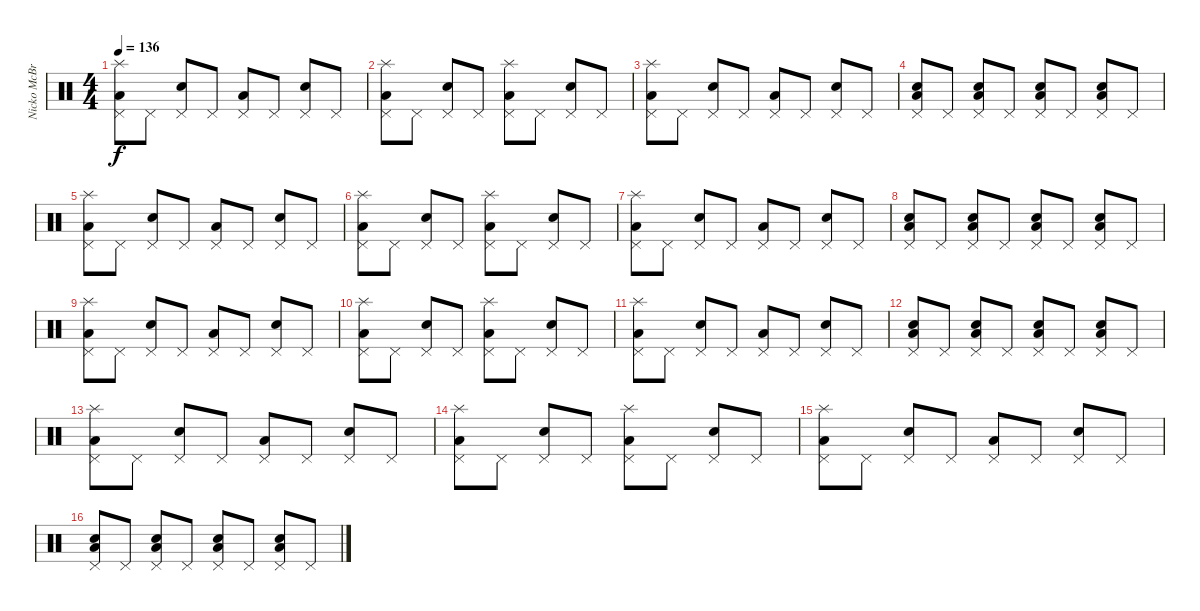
\track ("Nicko McBrian" "Nicko McBr") {instrument percussion}
\staff {score}
\articulation defaults
\ts (4 4)
\tempo 136
\clef neutral
\ks c
("Low Floor Tom (hit)" "Pedal Hi-Hat (hit)" "Splash (hit)").8{dy f} "Pedal Hi-Hat (hit)".8 ("Electric Snare (hit)" "Pedal Hi-Hat (hit)").8 "Pedal Hi-Hat (hit)".8 ("Low Floor Tom (hit)" "Pedal Hi-Hat (hit)").8 "Pedal Hi-Hat (hit)".8 ("Electric Snare (hit)" "Pedal Hi-Hat (hit)").8 "Pedal Hi-Hat (hit)".8 |
("Low Floor Tom (hit)" "Pedal Hi-Hat (hit)" "Splash (hit)").8 "Pedal Hi-Hat (hit)".8 ("Electric Snare (hit)" "Pedal Hi-Hat (hit)").8 "Pedal Hi-Hat (hit)".8 ("Low Floor Tom (hit)" "Pedal Hi-Hat (hit)" "Splash (hit)").8 "Pedal Hi-Hat (hit)".8 ("Electric Snare (hit)" "Pedal Hi-Hat (hit)").8 "Pedal Hi-Hat (hit)".8 |
("Low Floor Tom (hit)" "Pedal Hi-Hat (hit)" "Splash (hit)").8 "Pedal Hi-Hat (hit)".8 ("Electric Snare (hit)" "Pedal Hi-Hat (hit)").8 "Pedal Hi-Hat (hit)".8 ("Low Floor Tom (hit)" "Pedal Hi-Hat (hit)").8 "Pedal Hi-Hat (hit)".8 ("Electric Snare (hit)" "Pedal Hi-Hat (hit)").8 "Pedal Hi-Hat (hit)".8 |
("Electric Snare (hit)" "Low Floor Tom (hit)" "Pedal Hi-Hat (hit)").8 "Pedal Hi-Hat (hit)".8 ("Electric Snare (hit)" "Low Floor Tom (hit)" "Pedal Hi-Hat (hit)").8 "Pedal Hi-Hat (hit)".8 ("Electric Snare (hit)" "Low Floor Tom (hit)" "Pedal Hi-Hat (hit)").8 "Pedal Hi-Hat (hit)".8 ("Electric Snare (hit)" "Low Floor Tom (hit)" "Pedal Hi-Hat (hit)").8 "Pedal Hi-Hat (hit)".8 |
("Low Floor Tom (hit)" "Pedal Hi-Hat (hit)" "Splash (hit)").8 "Pedal Hi-Hat (hit)".8 ("Electric Snare (hit)" "Pedal Hi-Hat (hit)").8 "Pedal Hi-Hat (hit)".8 ("Low Floor Tom (hit)" "Pedal Hi-Hat (hit)").8 "Pedal Hi-Hat (hit)".8 ("Electric Snare (hit)" "Pedal Hi-Hat (hit)").8 "Pedal Hi-Hat (hit)".8 |
("Low Floor Tom (hit)" "Pedal Hi-Hat (hit)" "Splash (hit)").8 "Pedal Hi-Hat (hit)".8 ("Electric Snare (hit)" "Pedal Hi-Hat (hit)").8 "Pedal Hi-Hat (hit)".8 ("Low Floor Tom (hit)" "Pedal Hi-Hat (hit)" "Splash (hit)").8 "Pedal Hi-Hat (hit)".8 ("Electric Snare (hit)" "Pedal Hi-Hat (hit)").8 "Pedal Hi-Hat (hit)".8 |
("Low Floor Tom (hit)" "Pedal Hi-Hat (hit)" "Splash (hit)").8 "Pedal Hi-Hat (hit)".8 ("Electric Snare (hit)" "Pedal Hi-Hat (hit)").8 "Pedal Hi-Hat (hit)".8 ("Low Floor Tom (hit)" "Pedal Hi-Hat (hit)").8 "Pedal Hi-Hat (hit)".8 ("Electric Snare (hit)" "Pedal Hi-Hat (hit)").8 "Pedal Hi-Hat (hit)".8 |
("Electric Snare (hit)" "Low Floor Tom (hit)" "Pedal Hi-Hat (hit)").8 "Pedal Hi-Hat (hit)".8 ("Electric Snare (hit)" "Low Floor Tom (hit)" "Pedal Hi-Hat (hit)").8 "Pedal Hi-Hat (hit)".8 ("Electric Snare (hit)" "Low Floor Tom (hit)" "Pedal Hi-Hat (hit)").8 "Pedal Hi-Hat (hit)".8 ("Electric Snare (hit)" "Low Floor Tom (hit)" "Pedal Hi-Hat (hit)").8 "Pedal Hi-Hat (hit)".8 |
("Low Floor Tom (hit)" "Pedal Hi-Hat (hit)" "Splash (hit)").8 "Pedal Hi-Hat (hit)".8 ("Electric Snare (hit)" "Pedal Hi-Hat (hit)").8 "Pedal Hi-Hat (hit)".8 ("Low Floor Tom (hit)" "Pedal Hi-Hat (hit)").8 "Pedal Hi-Hat (hit)".8 ("Electric Snare (hit)" "Pedal Hi-Hat (hit)").8 "Pedal Hi-Hat (hit)".8 |
("Low Floor Tom (hit)" "Pedal Hi-Hat (hit)" "Splash (hit)").8 "Pedal Hi-Hat (hit)".8 ("Electric Snare (hit)" "Pedal Hi-Hat (hit)").8 "Pedal Hi-Hat (hit)".8 ("Low Floor Tom (hit)" "Pedal Hi-Hat (hit)" "Splash (hit)").8 "Pedal Hi-Hat (hit)".8 ("Electric Snare (hit)" "Pedal Hi-Hat (hit)").8 "Pedal Hi-Hat (hit)".8 |
("Low Floor Tom (hit)" "Pedal Hi-Hat (hit)" "Splash (hit)").8 "Pedal Hi-Hat (hit)".8 ("Electric Snare (hit)" "Pedal Hi-Hat (hit)").8 "Pedal Hi-Hat (hit)".8 ("Low Floor Tom (hit)" "Pedal Hi-Hat (hit)").8 "Pedal Hi-Hat (hit)".8 ("Electric Snare (hit)" "Pedal Hi-Hat (hit)").8 "Pedal Hi-Hat (hit)".8 |
("Electric Snare (hit)" "Low Floor Tom (hit)" "Pedal Hi-Hat (hit)").8 "Pedal Hi-Hat (hit)".8 ("Electric Snare (hit)" "Low Floor Tom (hit)" "Pedal Hi-Hat (hit)").8 "Pedal Hi-Hat (hit)".8 ("Electric Snare (hit)" "Low Floor Tom (hit)" "Pedal Hi-Hat (hit)").8 "Pedal Hi-Hat (hit)".8 ("Electric Snare (hit)" "Low Floor Tom (hit)" "Pedal Hi-Hat (hit)").8 "Pedal Hi-Hat (hit)".8 |
("Low Floor Tom (hit)" "Pedal Hi-Hat (hit)" "Splash (hit)").8 "Pedal Hi-Hat (hit)".8 ("Electric Snare (hit)" "Pedal Hi-Hat (hit)").8 "Pedal Hi-Hat (hit)".8 ("Low Floor Tom (hit)" "Pedal Hi-Hat (hit)").8 "Pedal Hi-Hat (hit)".8 ("Electric Snare (hit)" "Pedal Hi-Hat (hit)").8 "Pedal Hi-Hat (hit)".8 |
("Low Floor Tom (hit)" "Pedal Hi-Hat (hit)" "Splash (hit)").8 "Pedal Hi-Hat (hit)".8 ("Electric Snare (hit)" "Pedal Hi-Hat (hit)").8 "Pedal Hi-Hat (hit)".8 ("Low Floor Tom (hit)" "Pedal Hi-Hat (hit)" "Splash (hit)").8 "Pedal Hi-Hat (hit)".8 ("Electric Snare (hit)" "Pedal Hi-Hat (hit)").8 "Pedal Hi-Hat (hit)".8 |
("Low Floor Tom (hit)" "Pedal Hi-Hat (hit)" "Splash (hit)").8 "Pedal Hi-Hat (hit)".8 ("Electric Snare (hit)" "Pedal Hi-Hat (hit)").8 "Pedal Hi-Hat (hit)".8 ("Low Floor Tom (hit)" "Pedal Hi-Hat (hit)").8 "Pedal Hi-Hat (hit)".8 ("Electric Snare (hit)" "Pedal Hi-Hat (hit)").8 "Pedal Hi-Hat (hit)".8 |
("Electric Snare (hit)" "Low Floor Tom (hit)" "Pedal Hi-Hat (hit)").8 "Pedal Hi-Hat (hit)".8 ("Electric Snare (hit)" "Low Floor Tom (hit)" "Pedal Hi-Hat (hit)").8 "Pedal Hi-Hat (hit)".8 ("Electric Snare (hit)" "Low Floor Tom (hit)" "Pedal Hi-Hat (hit)").8 "Pedal Hi-Hat (hit)".8 ("Electric Snare (hit)" "Low Floor Tom (hit)" "Pedal Hi-Hat (hit)").8 "Pedal Hi-Hat (hit)".8
